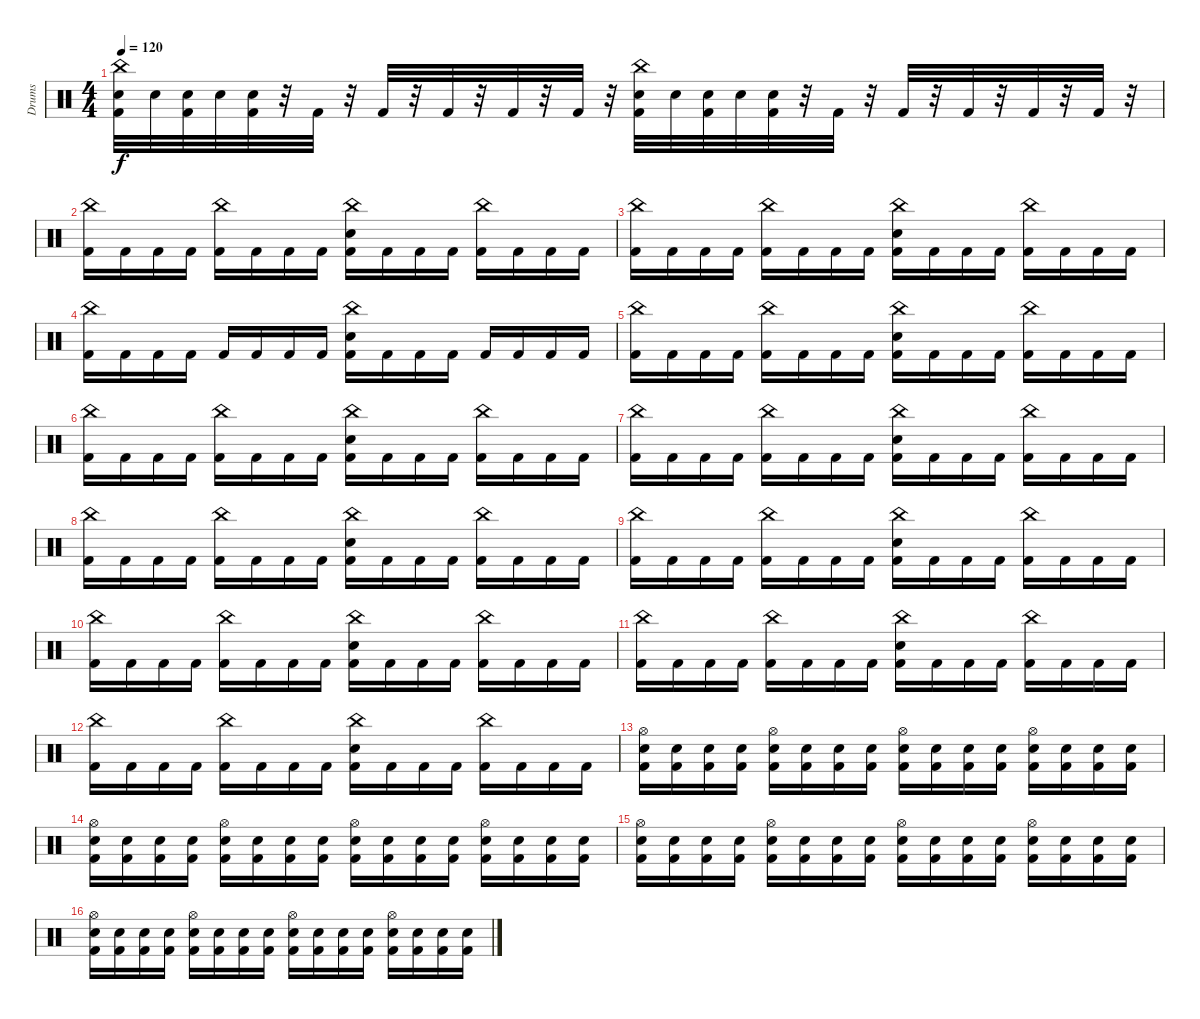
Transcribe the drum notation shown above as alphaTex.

\track ("Drums" "Drums") {instrument percussion}
\staff {score}
\articulation defaults
\ts (4 4)
\tempo 120
\clef neutral
\ks c
("China (hit)" "Snare (hit) 2" "Kick (hit) 2").32{dy f} "Snare (hit) 2".32 ("Snare (hit) 2" "Kick (hit) 2").32 "Snare (hit) 2".32 ("Snare (hit) 2" "Kick (hit) 2").32 r.32 "Kick (hit) 2".32 r.32 "Kick (hit) 2".32 r.32 "Kick (hit) 2".32 r.32 "Kick (hit) 2".32 r.32 "Kick (hit) 2".32 r.32 ("China (hit)" "Snare (hit) 2" "Kick (hit) 2").32 "Snare (hit) 2".32 ("Snare (hit) 2" "Kick (hit) 2").32 "Snare (hit) 2".32 ("Snare (hit) 2" "Kick (hit) 2").32 r.32 "Kick (hit) 2".32 r.32 "Kick (hit) 2".32 r.32 "Kick (hit) 2".32 r.32 "Kick (hit) 2".32 r.32 "Kick (hit) 2".32 r.32 |
("China (hit)" "Kick (hit) 2").16 "Kick (hit) 2".16 "Kick (hit) 2".16 "Kick (hit) 2".16 ("China (hit)" "Kick (hit) 2").16 "Kick (hit) 2".16 "Kick (hit) 2".16 "Kick (hit) 2".16 ("China (hit)" "Snare (hit) 2" "Kick (hit) 2").16 "Kick (hit) 2".16 "Kick (hit) 2".16 "Kick (hit) 2".16 ("China (hit)" "Kick (hit) 2").16 "Kick (hit) 2".16 "Kick (hit) 2".16 "Kick (hit) 2".16 |
("China (hit)" "Kick (hit) 2").16 "Kick (hit) 2".16 "Kick (hit) 2".16 "Kick (hit) 2".16 ("China (hit)" "Kick (hit) 2").16 "Kick (hit) 2".16 "Kick (hit) 2".16 "Kick (hit) 2".16 ("China (hit)" "Snare (hit) 2" "Kick (hit) 2").16 "Kick (hit) 2".16 "Kick (hit) 2".16 "Kick (hit) 2".16 ("China (hit)" "Kick (hit) 2").16 "Kick (hit) 2".16 "Kick (hit) 2".16 "Kick (hit) 2".16 |
("China (hit)" "Kick (hit) 2").16 "Kick (hit) 2".16 "Kick (hit) 2".16 "Kick (hit) 2".16 "Kick (hit) 2".16 "Kick (hit) 2".16 "Kick (hit) 2".16 "Kick (hit) 2".16 ("China (hit)" "Snare (hit) 2" "Kick (hit) 2").16 "Kick (hit) 2".16 "Kick (hit) 2".16 "Kick (hit) 2".16 "Kick (hit) 2".16 "Kick (hit) 2".16 "Kick (hit) 2".16 "Kick (hit) 2".16 |
("China (hit)" "Kick (hit) 2").16 "Kick (hit) 2".16 "Kick (hit) 2".16 "Kick (hit) 2".16 ("China (hit)" "Kick (hit) 2").16 "Kick (hit) 2".16 "Kick (hit) 2".16 "Kick (hit) 2".16 ("China (hit)" "Snare (hit) 2" "Kick (hit) 2").16 "Kick (hit) 2".16 "Kick (hit) 2".16 "Kick (hit) 2".16 ("China (hit)" "Kick (hit) 2").16 "Kick (hit) 2".16 "Kick (hit) 2".16 "Kick (hit) 2".16 |
("China (hit)" "Kick (hit) 2").16 "Kick (hit) 2".16 "Kick (hit) 2".16 "Kick (hit) 2".16 ("China (hit)" "Kick (hit) 2").16 "Kick (hit) 2".16 "Kick (hit) 2".16 "Kick (hit) 2".16 ("China (hit)" "Snare (hit) 2" "Kick (hit) 2").16 "Kick (hit) 2".16 "Kick (hit) 2".16 "Kick (hit) 2".16 ("China (hit)" "Kick (hit) 2").16 "Kick (hit) 2".16 "Kick (hit) 2".16 "Kick (hit) 2".16 |
("China (hit)" "Kick (hit) 2").16 "Kick (hit) 2".16 "Kick (hit) 2".16 "Kick (hit) 2".16 ("China (hit)" "Kick (hit) 2").16 "Kick (hit) 2".16 "Kick (hit) 2".16 "Kick (hit) 2".16 ("China (hit)" "Snare (hit) 2" "Kick (hit) 2").16 "Kick (hit) 2".16 "Kick (hit) 2".16 "Kick (hit) 2".16 ("China (hit)" "Kick (hit) 2").16 "Kick (hit) 2".16 "Kick (hit) 2".16 "Kick (hit) 2".16 |
("China (hit)" "Kick (hit) 2").16 "Kick (hit) 2".16 "Kick (hit) 2".16 "Kick (hit) 2".16 ("China (hit)" "Kick (hit) 2").16 "Kick (hit) 2".16 "Kick (hit) 2".16 "Kick (hit) 2".16 ("China (hit)" "Snare (hit) 2" "Kick (hit) 2").16 "Kick (hit) 2".16 "Kick (hit) 2".16 "Kick (hit) 2".16 ("China (hit)" "Kick (hit) 2").16 "Kick (hit) 2".16 "Kick (hit) 2".16 "Kick (hit) 2".16 |
("China (hit)" "Kick (hit) 2").16 "Kick (hit) 2".16 "Kick (hit) 2".16 "Kick (hit) 2".16 ("China (hit)" "Kick (hit) 2").16 "Kick (hit) 2".16 "Kick (hit) 2".16 "Kick (hit) 2".16 ("China (hit)" "Snare (hit) 2" "Kick (hit) 2").16 "Kick (hit) 2".16 "Kick (hit) 2".16 "Kick (hit) 2".16 ("China (hit)" "Kick (hit) 2").16 "Kick (hit) 2".16 "Kick (hit) 2".16 "Kick (hit) 2".16 |
("China (hit)" "Kick (hit) 2").16 "Kick (hit) 2".16 "Kick (hit) 2".16 "Kick (hit) 2".16 ("China (hit)" "Kick (hit) 2").16 "Kick (hit) 2".16 "Kick (hit) 2".16 "Kick (hit) 2".16 ("China (hit)" "Snare (hit) 2" "Kick (hit) 2").16 "Kick (hit) 2".16 "Kick (hit) 2".16 "Kick (hit) 2".16 ("China (hit)" "Kick (hit) 2").16 "Kick (hit) 2".16 "Kick (hit) 2".16 "Kick (hit) 2".16 |
("China (hit)" "Kick (hit) 2").16 "Kick (hit) 2".16 "Kick (hit) 2".16 "Kick (hit) 2".16 ("China (hit)" "Kick (hit) 2").16 "Kick (hit) 2".16 "Kick (hit) 2".16 "Kick (hit) 2".16 ("China (hit)" "Snare (hit) 2" "Kick (hit) 2").16 "Kick (hit) 2".16 "Kick (hit) 2".16 "Kick (hit) 2".16 ("China (hit)" "Kick (hit) 2").16 "Kick (hit) 2".16 "Kick (hit) 2".16 "Kick (hit) 2".16 |
("China (hit)" "Kick (hit) 2").16 "Kick (hit) 2".16 "Kick (hit) 2".16 "Kick (hit) 2".16 ("China (hit)" "Kick (hit) 2").16 "Kick (hit) 2".16 "Kick (hit) 2".16 "Kick (hit) 2".16 ("China (hit)" "Snare (hit) 2" "Kick (hit) 2").16 "Kick (hit) 2".16 "Kick (hit) 2".16 "Kick (hit) 2".16 ("China (hit)" "Kick (hit) 2").16 "Kick (hit) 2".16 "Kick (hit) 2".16 "Kick (hit) 2".16 |
("Hi-Hat (open)" "Snare (hit) 2" "Kick (hit) 2").16 ("Snare (hit) 2" "Kick (hit) 2").16 ("Snare (hit) 2" "Kick (hit) 2").16 ("Snare (hit) 2" "Kick (hit) 2").16 ("Hi-Hat (open)" "Snare (hit) 2" "Kick (hit) 2").16 ("Snare (hit) 2" "Kick (hit) 2").16 ("Snare (hit) 2" "Kick (hit) 2").16 ("Snare (hit) 2" "Kick (hit) 2").16 ("Hi-Hat (open)" "Snare (hit) 2" "Kick (hit) 2").16 ("Snare (hit) 2" "Kick (hit) 2").16 ("Snare (hit) 2" "Kick (hit) 2").16 ("Snare (hit) 2" "Kick (hit) 2").16 ("Hi-Hat (open)" "Snare (hit) 2" "Kick (hit) 2").16 ("Snare (hit) 2" "Kick (hit) 2").16 ("Snare (hit) 2" "Kick (hit) 2").16 ("Snare (hit) 2" "Kick (hit) 2").16 |
("Hi-Hat (open)" "Snare (hit) 2" "Kick (hit) 2").16 ("Snare (hit) 2" "Kick (hit) 2").16 ("Snare (hit) 2" "Kick (hit) 2").16 ("Snare (hit) 2" "Kick (hit) 2").16 ("Hi-Hat (open)" "Snare (hit) 2" "Kick (hit) 2").16 ("Snare (hit) 2" "Kick (hit) 2").16 ("Snare (hit) 2" "Kick (hit) 2").16 ("Snare (hit) 2" "Kick (hit) 2").16 ("Hi-Hat (open)" "Snare (hit) 2" "Kick (hit) 2").16 ("Snare (hit) 2" "Kick (hit) 2").16 ("Snare (hit) 2" "Kick (hit) 2").16 ("Snare (hit) 2" "Kick (hit) 2").16 ("Hi-Hat (open)" "Snare (hit) 2" "Kick (hit) 2").16 ("Snare (hit) 2" "Kick (hit) 2").16 ("Snare (hit) 2" "Kick (hit) 2").16 ("Snare (hit) 2" "Kick (hit) 2").16 |
("Hi-Hat (open)" "Snare (hit) 2" "Kick (hit) 2").16 ("Snare (hit) 2" "Kick (hit) 2").16 ("Snare (hit) 2" "Kick (hit) 2").16 ("Snare (hit) 2" "Kick (hit) 2").16 ("Hi-Hat (open)" "Snare (hit) 2" "Kick (hit) 2").16 ("Snare (hit) 2" "Kick (hit) 2").16 ("Snare (hit) 2" "Kick (hit) 2").16 ("Snare (hit) 2" "Kick (hit) 2").16 ("Hi-Hat (open)" "Snare (hit) 2" "Kick (hit) 2").16 ("Snare (hit) 2" "Kick (hit) 2").16 ("Snare (hit) 2" "Kick (hit) 2").16 ("Snare (hit) 2" "Kick (hit) 2").16 ("Hi-Hat (open)" "Snare (hit) 2" "Kick (hit) 2").16 ("Snare (hit) 2" "Kick (hit) 2").16 ("Snare (hit) 2" "Kick (hit) 2").16 ("Snare (hit) 2" "Kick (hit) 2").16 |
("Hi-Hat (open)" "Snare (hit) 2" "Kick (hit) 2").16 ("Snare (hit) 2" "Kick (hit) 2").16 ("Snare (hit) 2" "Kick (hit) 2").16 ("Snare (hit) 2" "Kick (hit) 2").16 ("Hi-Hat (open)" "Snare (hit) 2" "Kick (hit) 2").16 ("Snare (hit) 2" "Kick (hit) 2").16 ("Snare (hit) 2" "Kick (hit) 2").16 ("Snare (hit) 2" "Kick (hit) 2").16 ("Hi-Hat (open)" "Snare (hit) 2" "Kick (hit) 2").16 ("Snare (hit) 2" "Kick (hit) 2").16 ("Snare (hit) 2" "Kick (hit) 2").16 ("Snare (hit) 2" "Kick (hit) 2").16 ("Hi-Hat (open)" "Snare (hit) 2" "Kick (hit) 2").16 ("Snare (hit) 2" "Kick (hit) 2").16 ("Snare (hit) 2" "Kick (hit) 2").16 ("Snare (hit) 2" "Kick (hit) 2").16
